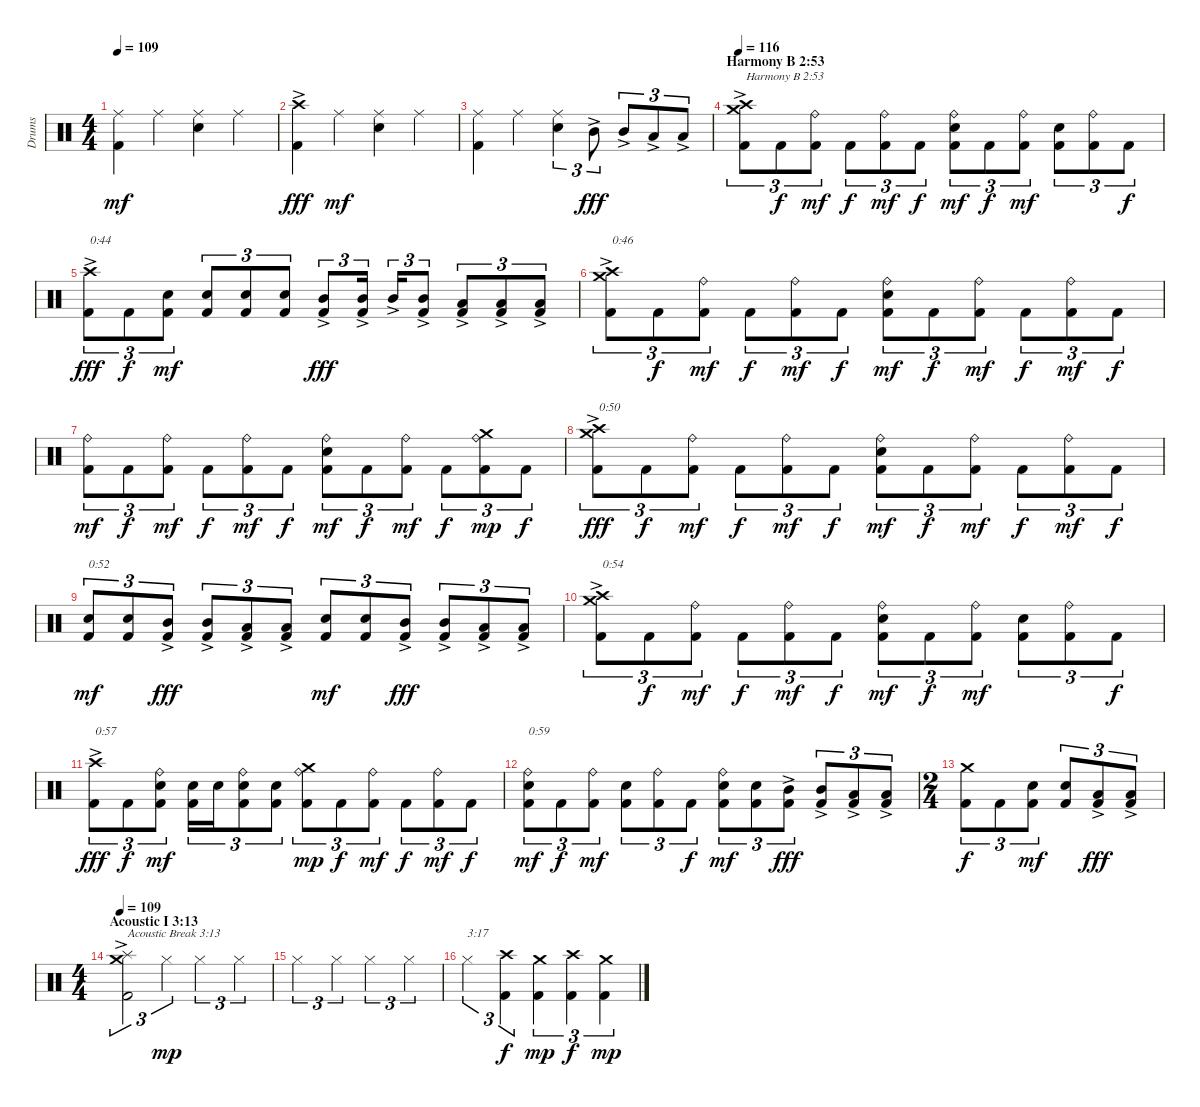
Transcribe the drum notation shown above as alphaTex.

\track ("Drums" "Drums") {instrument percussion}
\staff {score}
\articulation defaults
\ts (4 4)
\tempo 109
\clef neutral
\ks c
("Kick (hit) 2" "Ride (middle)").4{dy mf} "Ride (middle)".4 ("Electric Snare (hit)" "Ride (middle)").4 "Ride (middle)".4 |
("Kick (hit) 2" "Crash high (hit)"{ac}).4{dy fff} "Ride (middle)".4{dy mf} ("Electric Snare (hit)" "Ride (middle)").4 "Ride (middle)".4 |
("Kick (hit) 2" "Ride (middle)").4 "Ride (middle)".4 ("Electric Snare (hit)" "Ride (middle)").4{tu (3 2)} "Mid Tom (hit)"{ac}.8{tu (3 2) dy fff} "Mid Tom (hit)"{ac}.8{tu (3 2)} "Low Tom (hit)"{ac}.8{tu (3 2)} "Low Tom (hit)"{ac}.8{tu (3 2)} |
\section ("" "Harmony B 2:53")
\tempo 116
("Kick (hit) 2" "Crash medium (hit)"{ac} "Crash high (hit)"{ac}).8{tu (3 2) txt "Harmony B 2:53"} "Kick (hit) 2".8{tu (3 2) dy f} ("Kick (hit) 2" "Ride (bell)").8{tu (3 2) dy mf} "Kick (hit) 2".8{tu (3 2) dy f} ("Kick (hit) 2" "Ride (bell)").8{tu (3 2) dy mf} "Kick (hit) 2".8{tu (3 2) dy f} ("Kick (hit) 2" "Electric Snare (hit)" "Ride (bell)").8{tu (3 2) dy mf} "Kick (hit) 2".8{tu (3 2) dy f} ("Kick (hit) 2" "Ride (bell)").8{tu (3 2) dy mf} ("Kick (hit) 2" "Electric Snare (hit)").8{tu (3 2)} ("Kick (hit) 2" "Ride (bell)").8{tu (3 2)} "Kick (hit) 2".8{tu (3 2) dy f} |
("Kick (hit) 2" "Crash high (hit)"{ac}).8{tu (3 2) txt "0:44" dy fff} "Kick (hit) 2".8{tu (3 2) dy f} ("Kick (hit) 2" "Electric Snare (hit)").8{tu (3 2) dy mf} ("Kick (hit) 2" "Electric Snare (hit)").8{tu (3 2)} ("Kick (hit) 2" "Electric Snare (hit)").8{tu (3 2)} ("Kick (hit) 2" "Electric Snare (hit)").8{tu (3 2)} ("Kick (hit) 2" "Mid Tom (hit)"{ac}).8{tu (3 2) dy fff} ("Kick (hit) 2" "Mid Tom (hit)"{ac}).16{tu (3 2)} "Mid Tom (hit)"{ac}.16{tu (3 2)} ("Kick (hit) 2" "Mid Tom (hit)"{ac}).8{tu (3 2)} ("Kick (hit) 2" "Low Tom (hit)"{ac}).8{tu (3 2)} ("Kick (hit) 2" "Low Tom (hit)"{ac}).8{tu (3 2)} ("Kick (hit) 2" "Low Tom (hit)"{ac}).8{tu (3 2)} |
("Kick (hit) 2" "Crash medium (hit)"{ac} "Crash high (hit)"{ac}).8{tu (3 2) txt "0:46"} "Kick (hit) 2".8{tu (3 2) dy f} ("Kick (hit) 2" "Ride (bell)").8{tu (3 2) dy mf} "Kick (hit) 2".8{tu (3 2) dy f} ("Kick (hit) 2" "Ride (bell)").8{tu (3 2) dy mf} "Kick (hit) 2".8{tu (3 2) dy f} ("Kick (hit) 2" "Electric Snare (hit)" "Ride (bell)").8{tu (3 2) dy mf} "Kick (hit) 2".8{tu (3 2) dy f} ("Kick (hit) 2" "Ride (bell)").8{tu (3 2) dy mf} "Kick (hit) 2".8{tu (3 2) dy f} ("Kick (hit) 2" "Ride (bell)").8{tu (3 2) dy mf} "Kick (hit) 2".8{tu (3 2) dy f} |
("Kick (hit) 2" "Ride (bell)").8{tu (3 2) dy mf} "Kick (hit) 2".8{tu (3 2) dy f} ("Kick (hit) 2" "Ride (bell)").8{tu (3 2) dy mf} "Kick (hit) 2".8{tu (3 2) dy f} ("Kick (hit) 2" "Ride (bell)").8{tu (3 2) dy mf} "Kick (hit) 2".8{tu (3 2) dy f} ("Kick (hit) 2" "Electric Snare (hit)" "Ride (bell)").8{tu (3 2) dy mf} "Kick (hit) 2".8{tu (3 2) dy f} ("Kick (hit) 2" "Ride (bell)").8{tu (3 2) dy mf} "Kick (hit) 2".8{tu (3 2) dy f} ("Kick (hit) 2" "Ride (bell)" "Crash medium (hit)").8{tu (3 2) dy mp} "Kick (hit) 2".8{tu (3 2) dy f} |
("Kick (hit) 2" "Crash high (hit)" "Crash medium (hit)"{ac}).8{tu (3 2) txt "0:50" dy fff} "Kick (hit) 2".8{tu (3 2) dy f} ("Kick (hit) 2" "Ride (bell)").8{tu (3 2) dy mf} "Kick (hit) 2".8{tu (3 2) dy f} ("Kick (hit) 2" "Ride (bell)").8{tu (3 2) dy mf} "Kick (hit) 2".8{tu (3 2) dy f} ("Kick (hit) 2" "Electric Snare (hit)" "Ride (bell)").8{tu (3 2) dy mf} "Kick (hit) 2".8{tu (3 2) dy f} ("Kick (hit) 2" "Ride (bell)").8{tu (3 2) dy mf} "Kick (hit) 2".8{tu (3 2) dy f} ("Kick (hit) 2" "Ride (bell)").8{tu (3 2) dy mf} "Kick (hit) 2".8{tu (3 2) dy f} |
("Kick (hit) 2" "Electric Snare (hit)").8{tu (3 2) txt "0:52" dy mf} ("Kick (hit) 2" "Electric Snare (hit)").8{tu (3 2)} ("Kick (hit) 2" "Mid Tom (hit)"{ac}).8{tu (3 2) dy fff} ("Kick (hit) 2" "Mid Tom (hit)"{ac}).8{tu (3 2)} ("Kick (hit) 2" "Low Tom (hit)"{ac}).8{tu (3 2)} ("Kick (hit) 2" "Low Tom (hit)"{ac}).8{tu (3 2)} ("Kick (hit) 2" "Electric Snare (hit)").8{tu (3 2) dy mf} ("Kick (hit) 2" "Electric Snare (hit)").8{tu (3 2)} ("Kick (hit) 2" "Mid Tom (hit)"{ac}).8{tu (3 2) dy fff} ("Kick (hit) 2" "Mid Tom (hit)"{ac}).8{tu (3 2)} ("Kick (hit) 2" "Low Tom (hit)"{ac}).8{tu (3 2)} ("Kick (hit) 2" "Low Tom (hit)"{ac}).8{tu (3 2)} |
("Kick (hit) 2" "Crash medium (hit)"{ac} "Crash high (hit)"{ac}).8{tu (3 2) txt "0:54"} "Kick (hit) 2".8{tu (3 2) dy f} ("Kick (hit) 2" "Ride (bell)").8{tu (3 2) dy mf} "Kick (hit) 2".8{tu (3 2) dy f} ("Kick (hit) 2" "Ride (bell)").8{tu (3 2) dy mf} "Kick (hit) 2".8{tu (3 2) dy f} ("Kick (hit) 2" "Electric Snare (hit)" "Ride (bell)").8{tu (3 2) dy mf} "Kick (hit) 2".8{tu (3 2) dy f} ("Kick (hit) 2" "Ride (bell)").8{tu (3 2) dy mf} ("Kick (hit) 2" "Electric Snare (hit)").8{tu (3 2)} ("Kick (hit) 2" "Ride (bell)").8{tu (3 2)} "Kick (hit) 2".8{tu (3 2) dy f} |
("Kick (hit) 2" "Crash high (hit)"{ac}).8{tu (3 2) txt "0:57" dy fff} "Kick (hit) 2".8{tu (3 2) dy f} ("Kick (hit) 2" "Electric Snare (hit)" "Ride (bell)").8{tu (3 2) dy mf} ("Kick (hit) 2" "Electric Snare (hit)").16{tu (3 2)} "Electric Snare (hit)".16{tu (3 2)} ("Kick (hit) 2" "Electric Snare (hit)" "Ride (bell)").8{tu (3 2)} ("Kick (hit) 2" "Electric Snare (hit)").8{tu (3 2)} ("Kick (hit) 2" "Ride (bell)" "Crash medium (hit)").8{tu (3 2) dy mp} "Kick (hit) 2".8{tu (3 2) dy f} ("Kick (hit) 2" "Ride (bell)").8{tu (3 2) dy mf} "Kick (hit) 2".8{tu (3 2) dy f} ("Kick (hit) 2" "Ride (bell)").8{tu (3 2) dy mf} "Kick (hit) 2".8{tu (3 2) dy f} |
("Kick (hit) 2" "Electric Snare (hit)" "Ride (bell)").8{tu (3 2) txt "0:59" dy mf} "Kick (hit) 2".8{tu (3 2) dy f} ("Kick (hit) 2" "Ride (bell)").8{tu (3 2) dy mf} ("Kick (hit) 2" "Electric Snare (hit)").8{tu (3 2)} ("Kick (hit) 2" "Ride (bell)").8{tu (3 2)} "Kick (hit) 2".8{tu (3 2) dy f} ("Kick (hit) 2" "Electric Snare (hit)" "Ride (bell)").8{tu (3 2) dy mf} ("Kick (hit) 2" "Electric Snare (hit)").8{tu (3 2)} ("Kick (hit) 2" "Mid Tom (hit)"{ac}).8{tu (3 2) dy fff} ("Kick (hit) 2" "Mid Tom (hit)"{ac}).8{tu (3 2)} ("Kick (hit) 2" "Low Tom (hit)"{ac}).8{tu (3 2)} ("Kick (hit) 2" "Low Tom (hit)"{ac}).8{tu (3 2)} |
\ts (2 4)
("Kick (hit) 2" "Crash medium (hit)").8{tu (3 2) dy f} "Kick (hit) 2".8{tu (3 2)} ("Kick (hit) 2" "Electric Snare (hit)").8{tu (3 2) dy mf} ("Kick (hit) 2" "Electric Snare (hit)").8{tu (3 2)} ("Kick (hit) 2" "Low Tom (hit)"{ac}).8{tu (3 2) dy fff} ("Kick (hit) 2" "Low Tom (hit)"{ac}).8{tu (3 2)} |
\ts (4 4)
\section ("" "Acoustic I 3:13")
\tempo 109
("Kick (hit) 2" "Splash (hit)" "Crash medium (hit)"{ac}).2{tu (3 2) txt "Acoustic Break 3:13"} "Hi-Hat (closed)".4{tu (3 2) dy mp} "Hi-Hat (closed)".2{tu (3 2)} "Hi-Hat (closed)".4{tu (3 2)} |
"Hi-Hat (closed)".2{tu (3 2)} "Hi-Hat (closed)".4{tu (3 2)} "Hi-Hat (closed)".2{tu (3 2)} "Hi-Hat (closed)".4{tu (3 2)} |
"Hi-Hat (closed)".2{tu (3 2) txt "3:17"} ("Kick (hit) 2" "Crash high (hit)").4{tu (3 2) dy f} ("Kick (hit) 2" "Crash medium (hit)").4{tu (3 2) dy mp} ("Kick (hit) 2" "Crash high (hit)").4{tu (3 2) dy f} ("Kick (hit) 2" "Crash medium (hit)").4{tu (3 2) dy mp}
